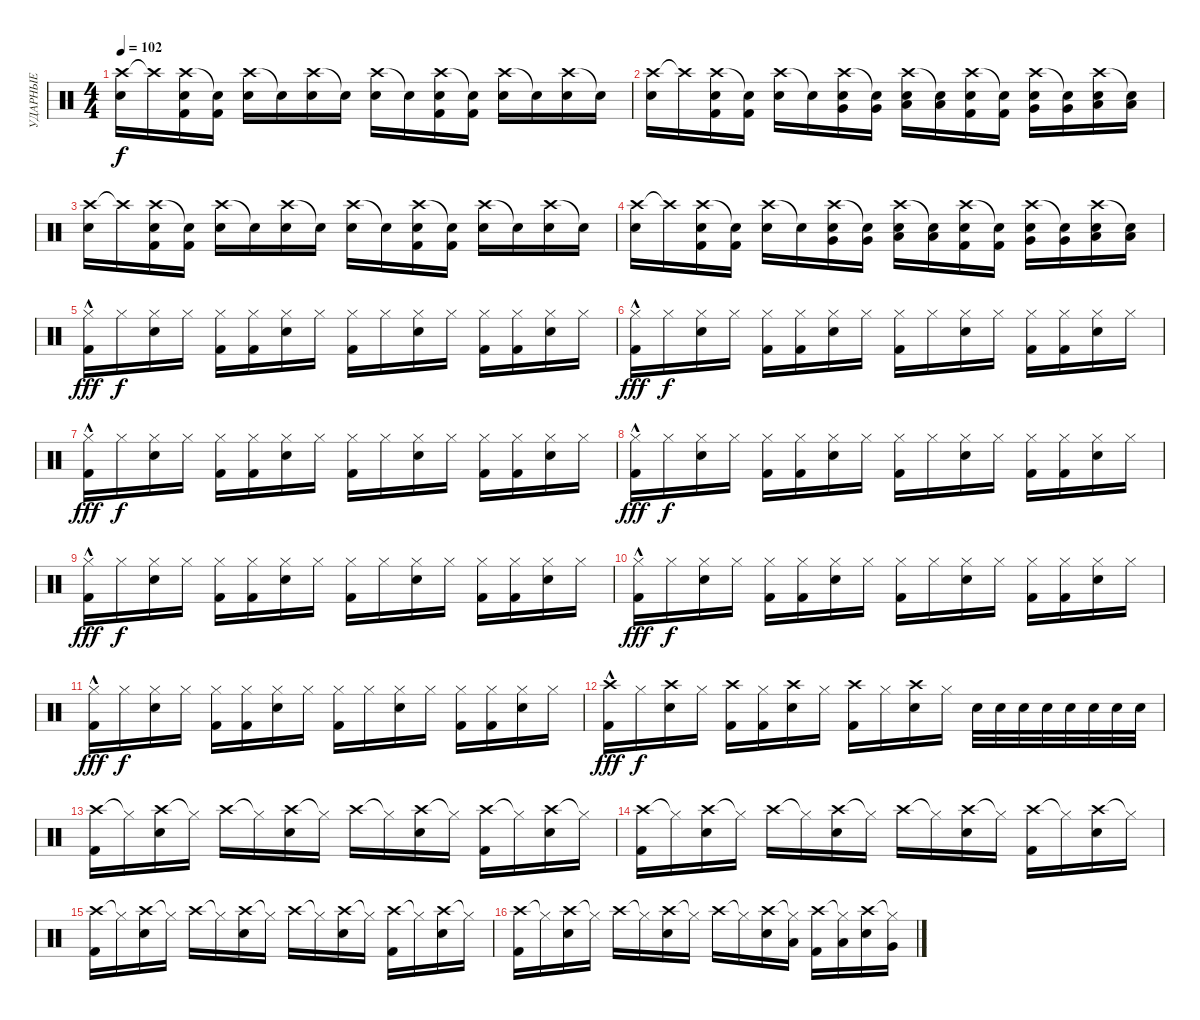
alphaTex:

\track ("УДАРНЫЕ" "УДАРНЫЕ") {instrument percussion}
\staff {score}
\articulation defaults
\ts (4 4)
\tempo 102
\clef neutral
\ks c
("Crash high (hit)" "Electric Snare (hit)").16{dy f} "Crash high (hit)"{t}.16 ("Crash high (hit)" "Kick (hit) 2" "Electric Snare (hit)").16 ("Snare (hit)"{t} "Kick (hit) 2").16 ("Crash high (hit)" "Electric Snare (hit)").16 "Snare (hit)"{t}.16 ("Crash high (hit)" "Electric Snare (hit)").16 "Snare (hit)"{t}.16 ("Crash high (hit)" "Electric Snare (hit)").16 "Snare (hit)"{t}.16 ("Crash high (hit)" "Kick (hit) 2" "Electric Snare (hit)").16 ("Snare (hit)"{t} "Kick (hit) 2").16 ("Crash high (hit)" "Electric Snare (hit)").16 "Snare (hit)"{t}.16 ("Crash high (hit)" "Electric Snare (hit)").16 "Snare (hit)"{t}.16 |
("Crash high (hit)" "Electric Snare (hit)").16 "Crash high (hit)"{t}.16 ("Crash high (hit)" "Kick (hit) 2" "Electric Snare (hit)").16 ("Snare (hit)"{t} "Kick (hit) 2").16 ("Crash high (hit)" "Electric Snare (hit)").16 "Snare (hit)"{t}.16 ("Crash high (hit)" "Very Low Tom (hit)" "Electric Snare (hit)").16 ("Snare (hit)"{t} "Very Low Tom (hit)").16 ("Crash high (hit)" "Low Tom (hit)" "Electric Snare (hit)").16 ("Snare (hit)"{t} "Low Tom (hit)").16 ("Crash high (hit)" "Kick (hit) 2" "Electric Snare (hit)").16 ("Snare (hit)"{t} "Kick (hit) 2").16 ("Crash high (hit)" "Very Low Tom (hit)" "Electric Snare (hit)").16 ("Snare (hit)"{t} "Very Low Tom (hit)").16 ("Crash high (hit)" "Low Tom (hit)" "Electric Snare (hit)").16 ("Snare (hit)"{t} "Low Tom (hit)").16 |
("Crash high (hit)" "Electric Snare (hit)").16 "Crash high (hit)"{t}.16 ("Crash high (hit)" "Kick (hit) 2" "Electric Snare (hit)").16 ("Snare (hit)"{t} "Kick (hit) 2").16 ("Crash high (hit)" "Electric Snare (hit)").16 "Snare (hit)"{t}.16 ("Crash high (hit)" "Electric Snare (hit)").16 "Snare (hit)"{t}.16 ("Crash high (hit)" "Electric Snare (hit)").16 "Snare (hit)"{t}.16 ("Crash high (hit)" "Kick (hit) 2" "Electric Snare (hit)").16 ("Snare (hit)"{t} "Kick (hit) 2").16 ("Crash high (hit)" "Electric Snare (hit)").16 "Snare (hit)"{t}.16 ("Crash high (hit)" "Electric Snare (hit)").16 "Snare (hit)"{t}.16 |
("Crash high (hit)" "Electric Snare (hit)").16 "Crash high (hit)"{t}.16 ("Crash high (hit)" "Kick (hit) 2" "Electric Snare (hit)").16 ("Snare (hit)"{t} "Kick (hit) 2").16 ("Crash high (hit)" "Electric Snare (hit)").16 "Snare (hit)"{t}.16 ("Crash high (hit)" "Very Low Tom (hit)" "Electric Snare (hit)").16 ("Snare (hit)"{t} "Very Low Tom (hit)").16 ("Crash high (hit)" "Low Tom (hit)" "Electric Snare (hit)").16 ("Snare (hit)"{t} "Low Tom (hit)").16 ("Crash high (hit)" "Kick (hit) 2" "Electric Snare (hit)").16 ("Snare (hit)"{t} "Kick (hit) 2").16 ("Crash high (hit)" "Very Low Tom (hit)" "Electric Snare (hit)").16 ("Snare (hit)"{t} "Very Low Tom (hit)").16 ("Crash high (hit)" "Low Tom (hit)" "Electric Snare (hit)").16 ("Snare (hit)"{t} "Low Tom (hit)").16 |
("Hi-Hat (closed)"{hac} "Kick (hit) 2").16{dy fff} "Hi-Hat (closed)".16{dy f} ("Hi-Hat (closed)" "Electric Snare (hit)").16 "Hi-Hat (closed)".16 ("Hi-Hat (closed)" "Kick (hit) 2").16 ("Hi-Hat (closed)" "Kick (hit) 2").16 ("Hi-Hat (closed)" "Electric Snare (hit)").16 "Hi-Hat (closed)".16 ("Hi-Hat (closed)" "Kick (hit) 2").16 "Hi-Hat (closed)".16 ("Hi-Hat (closed)" "Electric Snare (hit)").16 "Hi-Hat (closed)".16 ("Hi-Hat (closed)" "Kick (hit) 2").16 ("Hi-Hat (closed)" "Kick (hit) 2").16 ("Hi-Hat (closed)" "Electric Snare (hit)").16 "Hi-Hat (closed)".16 |
("Hi-Hat (closed)"{hac} "Kick (hit) 2").16{dy fff} "Hi-Hat (closed)".16{dy f} ("Hi-Hat (closed)" "Electric Snare (hit)").16 "Hi-Hat (closed)".16 ("Hi-Hat (closed)" "Kick (hit) 2").16 ("Hi-Hat (closed)" "Kick (hit) 2").16 ("Hi-Hat (closed)" "Electric Snare (hit)").16 "Hi-Hat (closed)".16 ("Hi-Hat (closed)" "Kick (hit) 2").16 "Hi-Hat (closed)".16 ("Hi-Hat (closed)" "Electric Snare (hit)").16 "Hi-Hat (closed)".16 ("Hi-Hat (closed)" "Kick (hit) 2").16 ("Hi-Hat (closed)" "Kick (hit) 2").16 ("Hi-Hat (closed)" "Electric Snare (hit)").16 "Hi-Hat (closed)".16 |
("Hi-Hat (closed)"{hac} "Kick (hit) 2").16{dy fff} "Hi-Hat (closed)".16{dy f} ("Hi-Hat (closed)" "Electric Snare (hit)").16 "Hi-Hat (closed)".16 ("Hi-Hat (closed)" "Kick (hit) 2").16 ("Hi-Hat (closed)" "Kick (hit) 2").16 ("Hi-Hat (closed)" "Electric Snare (hit)").16 "Hi-Hat (closed)".16 ("Hi-Hat (closed)" "Kick (hit) 2").16 "Hi-Hat (closed)".16 ("Hi-Hat (closed)" "Electric Snare (hit)").16 "Hi-Hat (closed)".16 ("Hi-Hat (closed)" "Kick (hit) 2").16 ("Hi-Hat (closed)" "Kick (hit) 2").16 ("Hi-Hat (closed)" "Electric Snare (hit)").16 "Hi-Hat (closed)".16 |
("Hi-Hat (closed)"{hac} "Kick (hit) 2").16{dy fff} "Hi-Hat (closed)".16{dy f} ("Hi-Hat (closed)" "Electric Snare (hit)").16 "Hi-Hat (closed)".16 ("Hi-Hat (closed)" "Kick (hit) 2").16 ("Hi-Hat (closed)" "Kick (hit) 2").16 ("Hi-Hat (closed)" "Electric Snare (hit)").16 "Hi-Hat (closed)".16 ("Hi-Hat (closed)" "Kick (hit) 2").16 "Hi-Hat (closed)".16 ("Hi-Hat (closed)" "Electric Snare (hit)").16 "Hi-Hat (closed)".16 ("Hi-Hat (closed)" "Kick (hit) 2").16 ("Hi-Hat (closed)" "Kick (hit) 2").16 ("Hi-Hat (closed)" "Electric Snare (hit)").16 "Hi-Hat (closed)".16 |
("Hi-Hat (closed)"{hac} "Kick (hit) 2").16{dy fff} "Hi-Hat (closed)".16{dy f} ("Hi-Hat (closed)" "Electric Snare (hit)").16 "Hi-Hat (closed)".16 ("Hi-Hat (closed)" "Kick (hit) 2").16 ("Hi-Hat (closed)" "Kick (hit) 2").16 ("Hi-Hat (closed)" "Electric Snare (hit)").16 "Hi-Hat (closed)".16 ("Hi-Hat (closed)" "Kick (hit) 2").16 "Hi-Hat (closed)".16 ("Hi-Hat (closed)" "Electric Snare (hit)").16 "Hi-Hat (closed)".16 ("Hi-Hat (closed)" "Kick (hit) 2").16 ("Hi-Hat (closed)" "Kick (hit) 2").16 ("Hi-Hat (closed)" "Electric Snare (hit)").16 "Hi-Hat (closed)".16 |
("Hi-Hat (closed)"{hac} "Kick (hit) 2").16{dy fff} "Hi-Hat (closed)".16{dy f} ("Hi-Hat (closed)" "Electric Snare (hit)").16 "Hi-Hat (closed)".16 ("Hi-Hat (closed)" "Kick (hit) 2").16 ("Hi-Hat (closed)" "Kick (hit) 2").16 ("Hi-Hat (closed)" "Electric Snare (hit)").16 "Hi-Hat (closed)".16 ("Hi-Hat (closed)" "Kick (hit) 2").16 "Hi-Hat (closed)".16 ("Hi-Hat (closed)" "Electric Snare (hit)").16 "Hi-Hat (closed)".16 ("Hi-Hat (closed)" "Kick (hit) 2").16 ("Hi-Hat (closed)" "Kick (hit) 2").16 ("Hi-Hat (closed)" "Electric Snare (hit)").16 "Hi-Hat (closed)".16 |
("Hi-Hat (closed)"{hac} "Kick (hit) 2").16{dy fff} "Hi-Hat (closed)".16{dy f} ("Hi-Hat (closed)" "Electric Snare (hit)").16 "Hi-Hat (closed)".16 ("Hi-Hat (closed)" "Kick (hit) 2").16 ("Hi-Hat (closed)" "Kick (hit) 2").16 ("Hi-Hat (closed)" "Electric Snare (hit)").16 "Hi-Hat (closed)".16 ("Hi-Hat (closed)" "Kick (hit) 2").16 "Hi-Hat (closed)".16 ("Hi-Hat (closed)" "Electric Snare (hit)").16 "Hi-Hat (closed)".16 ("Hi-Hat (closed)" "Kick (hit) 2").16 ("Hi-Hat (closed)" "Kick (hit) 2").16 ("Hi-Hat (closed)" "Electric Snare (hit)").16 "Hi-Hat (closed)".16 |
("Crash high (hit)"{hac} "Kick (hit) 2").16{dy fff} "Hi-Hat (closed)".16{dy f} ("Crash high (hit)" "Electric Snare (hit)").16 "Hi-Hat (closed)".16 ("Crash high (hit)" "Kick (hit) 2").16 ("Hi-Hat (closed)" "Kick (hit) 2").16 ("Crash high (hit)" "Electric Snare (hit)").16 "Hi-Hat (closed)".16 ("Crash high (hit)" "Kick (hit) 2").16 "Hi-Hat (closed)".16 ("Crash high (hit)" "Electric Snare (hit)").16 "Hi-Hat (closed)".16 "Electric Snare (hit)".32 "Electric Snare (hit)".32 "Electric Snare (hit)".32 "Electric Snare (hit)".32 "Electric Snare (hit)".32 "Electric Snare (hit)".32 "Electric Snare (hit)".32 "Electric Snare (hit)".32 |
("Crash high (hit)" "Kick (hit) 2").16 "Hi-Hat (closed)"{t}.16 ("Crash high (hit)" "Electric Snare (hit)").16 "Hi-Hat (closed)"{t}.16 "Crash high (hit)".16 "Hi-Hat (closed)"{t}.16 ("Crash high (hit)" "Electric Snare (hit)").16 "Hi-Hat (closed)"{t}.16 "Crash high (hit)".16 "Hi-Hat (closed)"{t}.16 ("Crash high (hit)" "Electric Snare (hit)").16 "Hi-Hat (closed)"{t}.16 ("Crash high (hit)" "Kick (hit) 2").16 "Hi-Hat (closed)"{t}.16 ("Crash high (hit)" "Electric Snare (hit)").16 "Hi-Hat (closed)"{t}.16 |
("Crash high (hit)" "Kick (hit) 2").16 "Hi-Hat (closed)"{t}.16 ("Crash high (hit)" "Electric Snare (hit)").16 "Hi-Hat (closed)"{t}.16 "Crash high (hit)".16 "Hi-Hat (closed)"{t}.16 ("Crash high (hit)" "Electric Snare (hit)").16 "Hi-Hat (closed)"{t}.16 "Crash high (hit)".16 "Hi-Hat (closed)"{t}.16 ("Crash high (hit)" "Electric Snare (hit)").16 "Hi-Hat (closed)"{t}.16 ("Crash high (hit)" "Kick (hit) 2").16 "Hi-Hat (closed)"{t}.16 ("Crash high (hit)" "Electric Snare (hit)").16 "Hi-Hat (closed)"{t}.16 |
("Crash high (hit)" "Kick (hit) 2").16 "Hi-Hat (closed)"{t}.16 ("Crash high (hit)" "Electric Snare (hit)").16 "Hi-Hat (closed)"{t}.16 "Crash high (hit)".16 "Hi-Hat (closed)"{t}.16 ("Crash high (hit)" "Electric Snare (hit)").16 "Hi-Hat (closed)"{t}.16 "Crash high (hit)".16 "Hi-Hat (closed)"{t}.16 ("Crash high (hit)" "Electric Snare (hit)").16 "Hi-Hat (closed)"{t}.16 ("Crash high (hit)" "Kick (hit) 2").16 "Hi-Hat (closed)"{t}.16 ("Crash high (hit)" "Electric Snare (hit)").16 "Hi-Hat (closed)"{t}.16 |
("Crash high (hit)" "Kick (hit) 2").16 "Hi-Hat (closed)"{t}.16 ("Crash high (hit)" "Electric Snare (hit)").16 "Hi-Hat (closed)"{t}.16 "Crash high (hit)".16 "Hi-Hat (closed)"{t}.16 ("Crash high (hit)" "Electric Snare (hit)").16 "Hi-Hat (closed)"{t}.16 "Crash high (hit)".16 "Hi-Hat (closed)"{t}.16 ("Crash high (hit)" "Electric Snare (hit)").16 ("Hi-Hat (closed)"{t} "Low Floor Tom (hit)").16 ("Crash high (hit)" "Kick (hit) 2").16 ("Hi-Hat (closed)"{t} "Low Tom (hit)").16 ("Crash high (hit)" "Electric Snare (hit)").16 ("Hi-Hat (closed)"{t} "Very Low Tom (hit)").16
